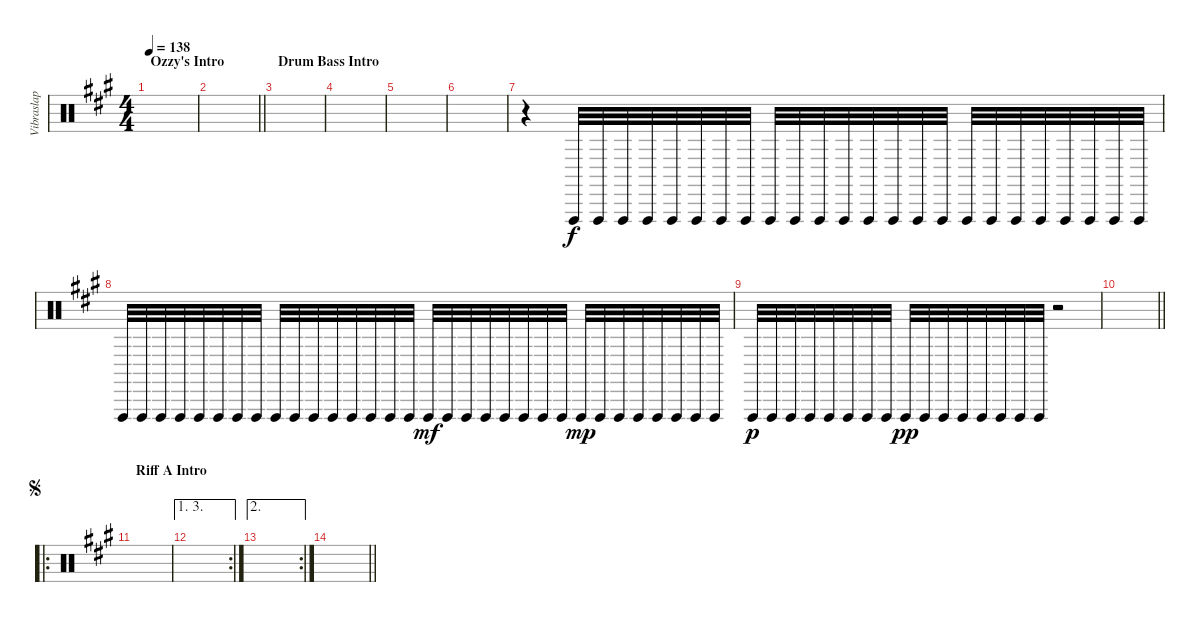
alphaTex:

\track ("Vibraslap" "Vibraslap") {instrument percussion}
\staff {score}
\articulation defaults
\ts (4 4)
\section ("" "Ozzy's Intro")
\tempo 138
\clef neutral
\ks a
|
\barLineRight lightlight
|
\section ("" "Drum Bass Intro")
|
|
|
|
r.4 "Vibraslap (hit)".32 "Vibraslap (hit)".32 "Vibraslap (hit)".32 "Vibraslap (hit)".32 "Vibraslap (hit)".32 "Vibraslap (hit)".32 "Vibraslap (hit)".32 "Vibraslap (hit)".32 "Vibraslap (hit)".32{balance 0} "Vibraslap (hit)".32 "Vibraslap (hit)".32 "Vibraslap (hit)".32 "Vibraslap (hit)".32 "Vibraslap (hit)".32 "Vibraslap (hit)".32 "Vibraslap (hit)".32 "Vibraslap (hit)".32{balance 16} "Vibraslap (hit)".32 "Vibraslap (hit)".32 "Vibraslap (hit)".32 "Vibraslap (hit)".32 "Vibraslap (hit)".32 "Vibraslap (hit)".32 "Vibraslap (hit)".32 |
"Vibraslap (hit)".32 "Vibraslap (hit)".32{balance 0} "Vibraslap (hit)".32 "Vibraslap (hit)".32 "Vibraslap (hit)".32 "Vibraslap (hit)".32 "Vibraslap (hit)".32 "Vibraslap (hit)".32 "Vibraslap (hit)".32{dy f} "Vibraslap (hit)".32{balance 16} "Vibraslap (hit)".32 "Vibraslap (hit)".32 "Vibraslap (hit)".32 "Vibraslap (hit)".32 "Vibraslap (hit)".32 "Vibraslap (hit)".32 "Vibraslap (hit)".32{dy mf} "Vibraslap (hit)".32{balance 0} "Vibraslap (hit)".32 "Vibraslap (hit)".32 "Vibraslap (hit)".32 "Vibraslap (hit)".32 "Vibraslap (hit)".32 "Vibraslap (hit)".32 "Vibraslap (hit)".32{dy mp} "Vibraslap (hit)".32{balance 16} "Vibraslap (hit)".32 "Vibraslap (hit)".32 "Vibraslap (hit)".32 "Vibraslap (hit)".32 "Vibraslap (hit)".32 "Vibraslap (hit)".32 |
"Vibraslap (hit)".32{dy p} "Vibraslap (hit)".32{balance 0} "Vibraslap (hit)".32 "Vibraslap (hit)".32 "Vibraslap (hit)".32 "Vibraslap (hit)".32 "Vibraslap (hit)".32 "Vibraslap (hit)".32 "Vibraslap (hit)".32{dy pp} "Vibraslap (hit)".32{balance 16} "Vibraslap (hit)".32 "Vibraslap (hit)".32 "Vibraslap (hit)".32 "Vibraslap (hit)".32 "Vibraslap (hit)".32 "Vibraslap (hit)".32 r.2 |
\barLineRight lightlight
|
\ro
\section ("" "Riff A Intro")
\jump segno
|
\ae (1 3)
\rc 2
|
\ae 2
\rc 2
|
\barLineRight lightlight
